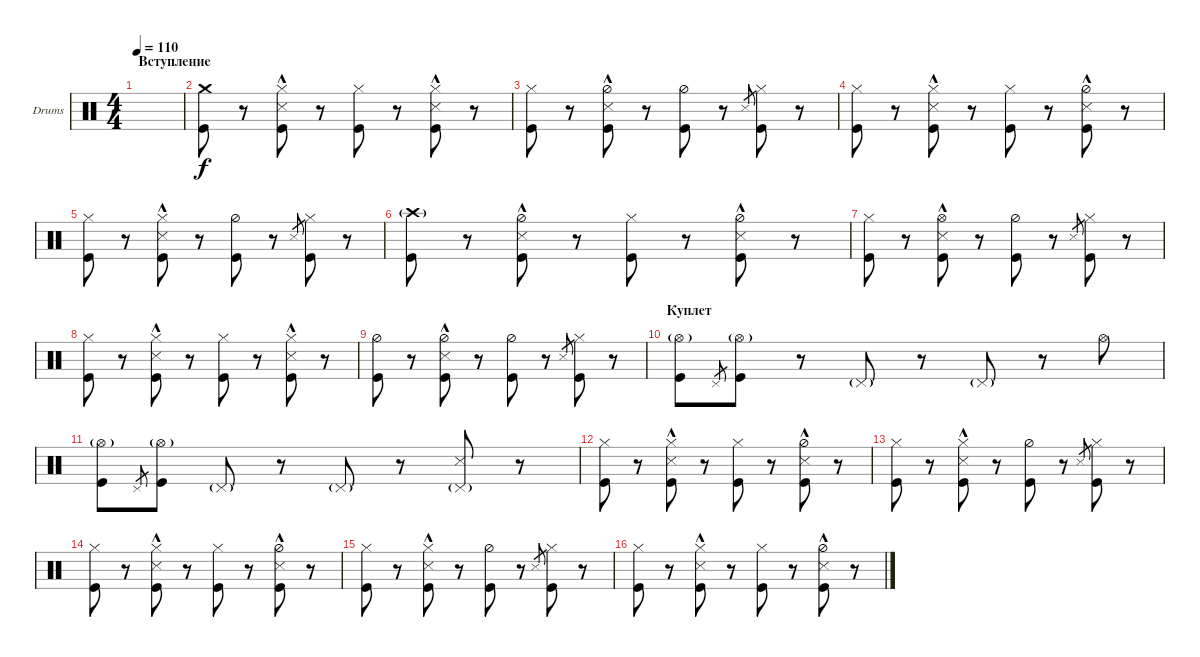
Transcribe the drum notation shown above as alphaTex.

\defaultSystemsLayout 4
\bracketExtendMode groupsimilarinstruments
\firstSystemTrackNameOrientation horizontal
\otherSystemsTrackNameOrientation horizontal
\track ("Drumkit" "Drums") {instrument percussion}
\staff {score}
\articulation defaults
\ts (4 4)
\section ("" "Вступление")
\tempo 110
\clef neutral
\scale
0.474178
\ks c
|
\scale
0.262911 ("Kick (hit)" "Crash medium (hit)").8 r.8 ("Snare (side stick) 3"{hac} "Hi-Hat (closed)" "Kick (hit)").8 r.8 ("Kick (hit)" "Hi-Hat (closed)").8 r.8 ("Snare (side stick) 3"{hac} "Hi-Hat (closed)" "Kick (hit)").8 r.8 |
\scale
0.262911 ("Kick (hit)" "Hi-Hat (closed)").8 r.8 ("Snare (side stick) 3"{hac} "Hi-Hat (half)" "Kick (hit)").8 r.8 ("Kick (hit)" "Hi-Hat (half)").8 r.8 "Snare (side stick) 3".8{gr} ("Hi-Hat (closed)" "Kick (hit)").8 r.8 |
\scale
0.333333 ("Kick (hit)" "Hi-Hat (closed)").8 r.8 ("Snare (side stick) 3"{hac} "Hi-Hat (closed)" "Kick (hit)").8 r.8 ("Kick (hit)" "Hi-Hat (closed)").8 r.8 ("Snare (side stick) 3"{hac} "Hi-Hat (half)" "Kick (hit)").8 r.8 |
\scale
0.333333 ("Kick (hit)" "Hi-Hat (closed)").8 r.8 ("Snare (side stick) 3"{hac} "Hi-Hat (closed)" "Kick (hit)").8 r.8 ("Kick (hit)" "Hi-Hat (half)").8 r.8 "Snare (side stick) 3".8{gr} ("Hi-Hat (closed)" "Kick (hit)").8 r.8 |
\scale
0.333333 ("Kick (hit)" "Crash high (hit)"{g}).8 r.8 ("Snare (side stick) 3"{hac} "Hi-Hat (half)" "Kick (hit)").8 r.8 ("Kick (hit)" "Hi-Hat (closed)").8 r.8 ("Snare (side stick) 3"{hac} "Hi-Hat (half)" "Kick (hit)").8 r.8 |
\scale
0.333333 ("Kick (hit)" "Hi-Hat (closed)").8 r.8 ("Snare (side stick) 3"{hac} "Hi-Hat (open)" "Kick (hit)").8 r.8 ("Kick (hit)" "Hi-Hat (half)").8 r.8 "Snare (side stick) 3".8{gr} ("Hi-Hat (closed)" "Kick (hit)").8 r.8 |
\scale
0.333333 ("Kick (hit)" "Hi-Hat (closed)").8 r.8 ("Snare (side stick) 3"{hac} "Hi-Hat (closed)" "Kick (hit)").8 r.8 ("Kick (hit)" "Hi-Hat (closed)").8 r.8 ("Snare (side stick) 3"{hac} "Hi-Hat (closed)" "Kick (hit)").8 r.8 |
\scale
0.333333 ("Kick (hit)" "Hi-Hat (half)").8 r.8 ("Snare (side stick) 3"{hac} "Hi-Hat (half)" "Kick (hit)").8 r.8 ("Kick (hit)" "Hi-Hat (half)").8 r.8 "Snare (side stick) 3".8{gr} ("Hi-Hat (closed)" "Kick (hit)").8 r.8 |
\section ("" "Куплет")
\scale
0.333333 ("Hi-Hat (open)"{g} "Kick (hit)").8 "Pedal Hi-Hat (hit)".8{gr} ("Kick (hit)" "Hi-Hat (open)"{g}).8 r.8 "Pedal Hi-Hat (hit)"{g}.8 r.8 "Pedal Hi-Hat (hit)"{g}.8 r.8 "Hi-Hat (open)".8 |
\scale
0.333333 ("Hi-Hat (open)"{g} "Kick (hit)").8 "Pedal Hi-Hat (hit)".8{gr} ("Kick (hit)" "Hi-Hat (open)"{g}).8 "Pedal Hi-Hat (hit)"{g}.8 r.8 "Pedal Hi-Hat (hit)"{g}.8 r.8 ("Pedal Hi-Hat (hit)"{g} "Snare (side stick) 3").8 r.8 |
\scale
0.333333 ("Kick (hit)" "Hi-Hat (closed)").8 r.8 ("Snare (side stick) 3"{hac} "Hi-Hat (closed)" "Kick (hit)").8 r.8 ("Kick (hit)" "Hi-Hat (closed)").8 r.8 ("Snare (side stick) 3"{hac} "Hi-Hat (half)" "Kick (hit)").8 r.8 |
\scale
0.333333 ("Kick (hit)" "Hi-Hat (closed)").8 r.8 ("Snare (side stick) 3"{hac} "Hi-Hat (closed)" "Kick (hit)").8 r.8 ("Kick (hit)" "Hi-Hat (half)").8 r.8 "Snare (side stick) 3".8{gr} ("Hi-Hat (closed)" "Kick (hit)").8 r.8 |
\scale
0.333333 ("Kick (hit)" "Hi-Hat (closed)").8 r.8 ("Snare (side stick) 3"{hac} "Hi-Hat (closed)" "Kick (hit)").8 r.8 ("Kick (hit)" "Hi-Hat (closed)").8 r.8 ("Snare (side stick) 3"{hac} "Hi-Hat (half)" "Kick (hit)").8 r.8 |
\scale
0.333333 ("Kick (hit)" "Hi-Hat (closed)").8 r.8 ("Snare (side stick) 3"{hac} "Hi-Hat (closed)" "Kick (hit)").8 r.8 ("Kick (hit)" "Hi-Hat (half)").8 r.8 "Snare (side stick) 3".8{gr} ("Hi-Hat (closed)" "Kick (hit)").8 r.8 |
\scale
0.333333 ("Kick (hit)" "Hi-Hat (closed)").8 r.8 ("Snare (side stick) 3"{hac} "Hi-Hat (closed)" "Kick (hit)").8 r.8 ("Kick (hit)" "Hi-Hat (closed)").8 r.8 ("Snare (side stick) 3"{hac} "Hi-Hat (half)" "Kick (hit)").8 r.8
